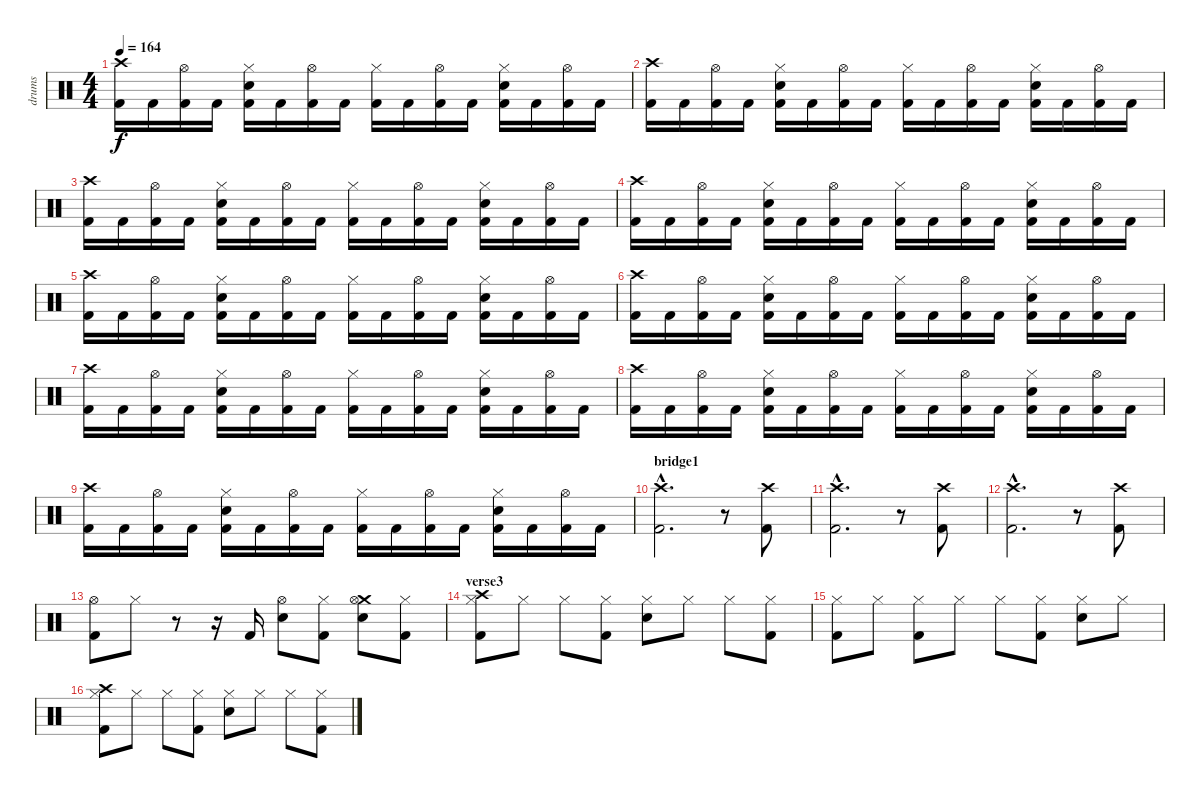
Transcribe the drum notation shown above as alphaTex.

\track ("drums" "drums") {instrument percussion}
\staff {score}
\articulation defaults
\ts (4 4)
\tempo 164
\clef neutral
\ks c
("Crash high (hit)" "Kick (hit) 2").16{dy f} "Kick (hit) 2".16 ("Hi-Hat (open)" "Kick (hit) 2").16 "Kick (hit) 2".16 ("Hi-Hat (closed)" "Electric Snare (hit)" "Kick (hit) 2").16 "Kick (hit) 2".16 ("Hi-Hat (open)" "Kick (hit) 2").16 "Kick (hit) 2".16 ("Hi-Hat (closed)" "Kick (hit) 2").16 "Kick (hit) 2".16 ("Hi-Hat (open)" "Kick (hit) 2").16 "Kick (hit) 2".16 ("Hi-Hat (closed)" "Electric Snare (hit)" "Kick (hit) 2").16 "Kick (hit) 2".16 ("Hi-Hat (open)" "Kick (hit) 2").16 "Kick (hit) 2".16 |
("Crash high (hit)" "Kick (hit) 2").16 "Kick (hit) 2".16 ("Hi-Hat (open)" "Kick (hit) 2").16 "Kick (hit) 2".16 ("Hi-Hat (closed)" "Electric Snare (hit)" "Kick (hit) 2").16 "Kick (hit) 2".16 ("Hi-Hat (open)" "Kick (hit) 2").16 "Kick (hit) 2".16 ("Hi-Hat (closed)" "Kick (hit) 2").16 "Kick (hit) 2".16 ("Hi-Hat (open)" "Kick (hit) 2").16 "Kick (hit) 2".16 ("Hi-Hat (closed)" "Electric Snare (hit)" "Kick (hit) 2").16 "Kick (hit) 2".16 ("Hi-Hat (open)" "Kick (hit) 2").16 "Kick (hit) 2".16 |
("Crash high (hit)" "Kick (hit) 2").16 "Kick (hit) 2".16 ("Hi-Hat (open)" "Kick (hit) 2").16 "Kick (hit) 2".16 ("Hi-Hat (closed)" "Electric Snare (hit)" "Kick (hit) 2").16 "Kick (hit) 2".16 ("Hi-Hat (open)" "Kick (hit) 2").16 "Kick (hit) 2".16 ("Hi-Hat (closed)" "Kick (hit) 2").16 "Kick (hit) 2".16 ("Hi-Hat (open)" "Kick (hit) 2").16 "Kick (hit) 2".16 ("Hi-Hat (closed)" "Electric Snare (hit)" "Kick (hit) 2").16 "Kick (hit) 2".16 ("Hi-Hat (open)" "Kick (hit) 2").16 "Kick (hit) 2".16 |
("Crash high (hit)" "Kick (hit) 2").16 "Kick (hit) 2".16 ("Hi-Hat (open)" "Kick (hit) 2").16 "Kick (hit) 2".16 ("Hi-Hat (closed)" "Electric Snare (hit)" "Kick (hit) 2").16 "Kick (hit) 2".16 ("Hi-Hat (open)" "Kick (hit) 2").16 "Kick (hit) 2".16 ("Hi-Hat (closed)" "Kick (hit) 2").16 "Kick (hit) 2".16 ("Hi-Hat (open)" "Kick (hit) 2").16 "Kick (hit) 2".16 ("Hi-Hat (closed)" "Electric Snare (hit)" "Kick (hit) 2").16 "Kick (hit) 2".16 ("Hi-Hat (open)" "Kick (hit) 2").16 "Kick (hit) 2".16 |
("Crash high (hit)" "Kick (hit) 2").16 "Kick (hit) 2".16 ("Hi-Hat (open)" "Kick (hit) 2").16 "Kick (hit) 2".16 ("Hi-Hat (closed)" "Electric Snare (hit)" "Kick (hit) 2").16 "Kick (hit) 2".16 ("Hi-Hat (open)" "Kick (hit) 2").16 "Kick (hit) 2".16 ("Hi-Hat (closed)" "Kick (hit) 2").16 "Kick (hit) 2".16 ("Hi-Hat (open)" "Kick (hit) 2").16 "Kick (hit) 2".16 ("Hi-Hat (closed)" "Electric Snare (hit)" "Kick (hit) 2").16 "Kick (hit) 2".16 ("Hi-Hat (open)" "Kick (hit) 2").16 "Kick (hit) 2".16 |
("Crash high (hit)" "Kick (hit) 2").16 "Kick (hit) 2".16 ("Hi-Hat (open)" "Kick (hit) 2").16 "Kick (hit) 2".16 ("Hi-Hat (closed)" "Electric Snare (hit)" "Kick (hit) 2").16 "Kick (hit) 2".16 ("Hi-Hat (open)" "Kick (hit) 2").16 "Kick (hit) 2".16 ("Hi-Hat (closed)" "Kick (hit) 2").16 "Kick (hit) 2".16 ("Hi-Hat (open)" "Kick (hit) 2").16 "Kick (hit) 2".16 ("Hi-Hat (closed)" "Electric Snare (hit)" "Kick (hit) 2").16 "Kick (hit) 2".16 ("Hi-Hat (open)" "Kick (hit) 2").16 "Kick (hit) 2".16 |
("Crash high (hit)" "Kick (hit) 2").16 "Kick (hit) 2".16 ("Hi-Hat (open)" "Kick (hit) 2").16 "Kick (hit) 2".16 ("Hi-Hat (closed)" "Electric Snare (hit)" "Kick (hit) 2").16 "Kick (hit) 2".16 ("Hi-Hat (open)" "Kick (hit) 2").16 "Kick (hit) 2".16 ("Hi-Hat (closed)" "Kick (hit) 2").16 "Kick (hit) 2".16 ("Hi-Hat (open)" "Kick (hit) 2").16 "Kick (hit) 2".16 ("Hi-Hat (closed)" "Electric Snare (hit)" "Kick (hit) 2").16 "Kick (hit) 2".16 ("Hi-Hat (open)" "Kick (hit) 2").16 "Kick (hit) 2".16 |
("Crash high (hit)" "Kick (hit) 2").16 "Kick (hit) 2".16 ("Hi-Hat (open)" "Kick (hit) 2").16 "Kick (hit) 2".16 ("Hi-Hat (closed)" "Electric Snare (hit)" "Kick (hit) 2").16 "Kick (hit) 2".16 ("Hi-Hat (open)" "Kick (hit) 2").16 "Kick (hit) 2".16 ("Hi-Hat (closed)" "Kick (hit) 2").16 "Kick (hit) 2".16 ("Hi-Hat (open)" "Kick (hit) 2").16 "Kick (hit) 2".16 ("Hi-Hat (closed)" "Electric Snare (hit)" "Kick (hit) 2").16 "Kick (hit) 2".16 ("Hi-Hat (open)" "Kick (hit) 2").16 "Kick (hit) 2".16 |
("Crash high (hit)" "Kick (hit) 2").16 "Kick (hit) 2".16 ("Hi-Hat (open)" "Kick (hit) 2").16 "Kick (hit) 2".16 ("Hi-Hat (closed)" "Electric Snare (hit)" "Kick (hit) 2").16 "Kick (hit) 2".16 ("Hi-Hat (open)" "Kick (hit) 2").16 "Kick (hit) 2".16 ("Hi-Hat (closed)" "Kick (hit) 2").16 "Kick (hit) 2".16 ("Hi-Hat (open)" "Kick (hit) 2").16 "Kick (hit) 2".16 ("Hi-Hat (closed)" "Electric Snare (hit)" "Kick (hit) 2").16 "Kick (hit) 2".16 ("Hi-Hat (open)" "Kick (hit) 2").16 "Kick (hit) 2".16 |
\section ("" "bridge1")
("Crash high (hit)"{hac} "Kick (hit) 2"{hac}).2{d} r.8 ("Crash high (hit)" "Kick (hit) 2").8 |
("Crash high (hit)"{hac} "Kick (hit) 2"{hac}).2{d} r.8 ("Crash high (hit)" "Kick (hit) 2").8 |
("Crash high (hit)"{hac} "Kick (hit) 2"{hac}).2{d} r.8 ("Crash high (hit)" "Kick (hit) 2").8 |
("Hi-Hat (open)" "Kick (hit) 2").8 "Hi-Hat (closed)".8 r.8 r.16 "Kick (hit) 2".16 ("Hi-Hat (open)" "Electric Snare (hit)").8 ("Hi-Hat (closed)" "Kick (hit) 2").8 ("Crash medium (hit)" "Hi-Hat (open)" "Electric Snare (hit)").8 ("Hi-Hat (closed)" "Kick (hit) 2").8 |
\section ("" "verse3")
("Crash high (hit)" "Hi-Hat (closed)" "Kick (hit) 2").8 "Hi-Hat (closed)".8 "Hi-Hat (closed)".8 ("Hi-Hat (closed)" "Kick (hit) 2").8 ("Hi-Hat (closed)" "Electric Snare (hit)").8 "Hi-Hat (closed)".8 "Hi-Hat (closed)".8 ("Hi-Hat (closed)" "Kick (hit) 2").8 |
("Hi-Hat (closed)" "Kick (hit) 2").8 "Hi-Hat (closed)".8 ("Hi-Hat (closed)" "Kick (hit) 2").8 "Hi-Hat (closed)".8 "Hi-Hat (closed)".8 ("Hi-Hat (closed)" "Kick (hit) 2").8 ("Hi-Hat (closed)" "Electric Snare (hit)").8 "Hi-Hat (closed)".8 |
("Crash high (hit)" "Hi-Hat (closed)" "Kick (hit) 2").8 "Hi-Hat (closed)".8 "Hi-Hat (closed)".8 ("Hi-Hat (closed)" "Kick (hit) 2").8 ("Hi-Hat (closed)" "Electric Snare (hit)").8 "Hi-Hat (closed)".8 "Hi-Hat (closed)".8 ("Hi-Hat (closed)" "Kick (hit) 2").8
